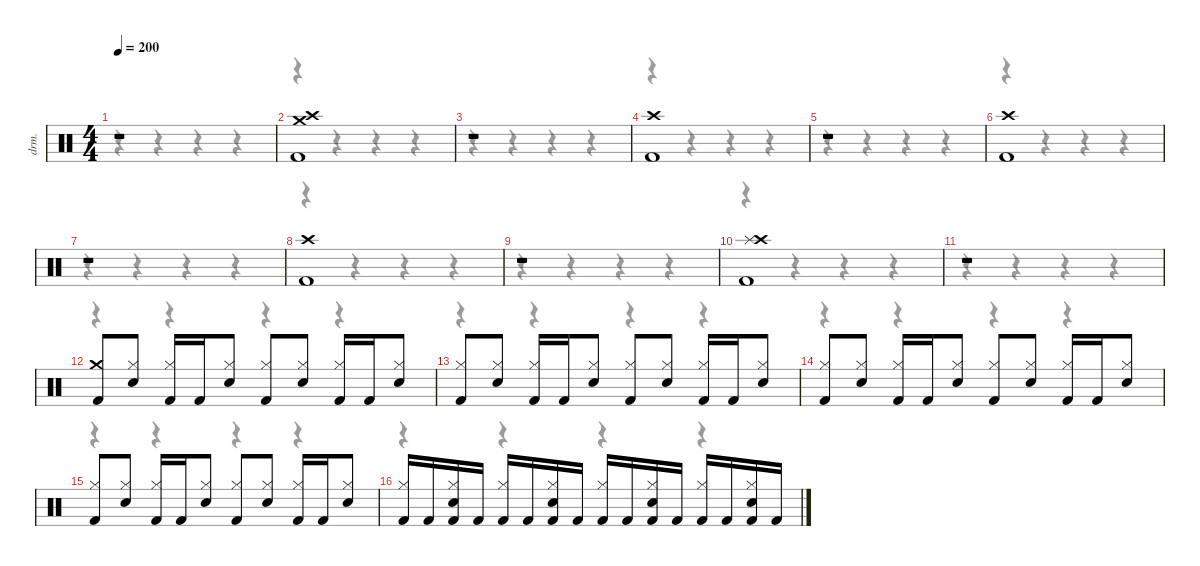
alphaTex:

\hideDynamics
\bracketExtendMode nobrackets
\otherSystemsTrackNameOrientation horizontal
\track ("Drums" "drm.") {instrument percussion}
\staff {score}
\articulation defaults
\voice
\ts (4 4)
\scale
0.990536
\tempo 200
\accidentals auto
\clef neutral
\ottava regular
\simile none
\ks c
r.1{dy f} |
\scale
0.968469 ("Kick (hit) 2" "Crash medium (hit)" "Crash high (hit)").1 |
\scale
0.990536 r.1 |
\scale
1.09346 ("Kick (hit) 2" "Crash high (hit)").1 |
\scale
0.990144 r.1 |
\scale
0.972981 ("Kick (hit) 2" "Crash high (hit)").1 |
\scale
0.990144 r.1 |
\scale
0.972981 ("Kick (hit) 2" "Crash high (hit)").1 |
\scale
0.990144 r.1 |
\scale
0.990144 ("Kick (hit) 2" "Splash (hit)" "Crash high (hit)").1 |
\scale
1.06149 r.1 |
\scale
0.975432 ("Kick (hit) 2" "Crash medium (hit)").8 ("Snare (hit) 2" "Hi-Hat (closed)").8 ("Kick (hit) 2" "Hi-Hat (closed)").16 "Kick (hit) 2".16 ("Snare (hit) 2" "Hi-Hat (closed)").8 ("Kick (hit) 2" "Hi-Hat (closed)").8 ("Snare (hit) 2" "Hi-Hat (closed)").8 ("Kick (hit) 2" "Hi-Hat (closed)").16 "Kick (hit) 2".16 ("Snare (hit) 2" "Hi-Hat (closed)").8 |
\scale
0.987692 ("Kick (hit) 2" "Hi-Hat (closed)").8 ("Snare (hit) 2" "Hi-Hat (closed)").8 ("Kick (hit) 2" "Hi-Hat (closed)").16 "Kick (hit) 2".16 ("Snare (hit) 2" "Hi-Hat (closed)").8 ("Kick (hit) 2" "Hi-Hat (closed)").8 ("Snare (hit) 2" "Hi-Hat (closed)").8 ("Kick (hit) 2" "Hi-Hat (closed)").16 "Kick (hit) 2".16 ("Snare (hit) 2" "Hi-Hat (closed)").8 |
\scale
0.987692 ("Kick (hit) 2" "Hi-Hat (closed)").8 ("Snare (hit) 2" "Hi-Hat (closed)").8 ("Kick (hit) 2" "Hi-Hat (closed)").16 "Kick (hit) 2".16 ("Snare (hit) 2" "Hi-Hat (closed)").8 ("Kick (hit) 2" "Hi-Hat (closed)").8 ("Snare (hit) 2" "Hi-Hat (closed)").8 ("Kick (hit) 2" "Hi-Hat (closed)").16 "Kick (hit) 2".16 ("Snare (hit) 2" "Hi-Hat (closed)").8 |
\scale
0.987692 ("Kick (hit) 2" "Hi-Hat (closed)").8 ("Snare (hit) 2" "Hi-Hat (closed)").8 ("Kick (hit) 2" "Hi-Hat (closed)").16 "Kick (hit) 2".16 ("Snare (hit) 2" "Hi-Hat (closed)").8 ("Kick (hit) 2" "Hi-Hat (closed)").8 ("Snare (hit) 2" "Hi-Hat (closed)").8 ("Kick (hit) 2" "Hi-Hat (closed)").16 "Kick (hit) 2".16 ("Snare (hit) 2" "Hi-Hat (closed)").8 |
\scale
1.0787 ("Kick (hit) 2" "Hi-Hat (closed)").16 "Kick (hit) 2".16 ("Kick (hit) 2" "Snare (hit) 2" "Hi-Hat (closed)").16 "Kick (hit) 2".16 ("Kick (hit) 2" "Hi-Hat (closed)").16 "Kick (hit) 2".16 ("Kick (hit) 2" "Snare (hit) 2" "Hi-Hat (closed)").16 "Kick (hit) 2".16 ("Kick (hit) 2" "Hi-Hat (closed)").16 "Kick (hit) 2".16 ("Kick (hit) 2" "Snare (hit) 2" "Hi-Hat (closed)").16 "Kick (hit) 2".16 ("Kick (hit) 2" "Hi-Hat (closed)").16 "Kick (hit) 2".16 ("Kick (hit) 2" "Snare (hit) 2" "Hi-Hat (closed)").16 "Kick (hit) 2".16
\voice
\clef neutral
\ottava regular
\simile none
\ks c
r.4{dy mf} r.4 r.4 r.4 |
r.4 r.4 r.4 r.4 |
r.4 r.4 r.4 r.4 |
r.4 r.4 r.4 r.4 |
r.4 r.4 r.4 r.4 |
r.4 r.4 r.4 r.4 |
r.4 r.4 r.4 r.4 |
r.4 r.4 r.4 r.4 |
r.4 r.4 r.4 r.4 |
r.4 r.4 r.4 r.4 |
r.4 r.4 r.4 r.4 |
r.4 r.4 r.4 r.4 |
r.4 r.4 r.4 r.4 |
r.4 r.4 r.4 r.4 |
r.4 r.4 r.4 r.4 |
r.4 r.4 r.4 r.4
